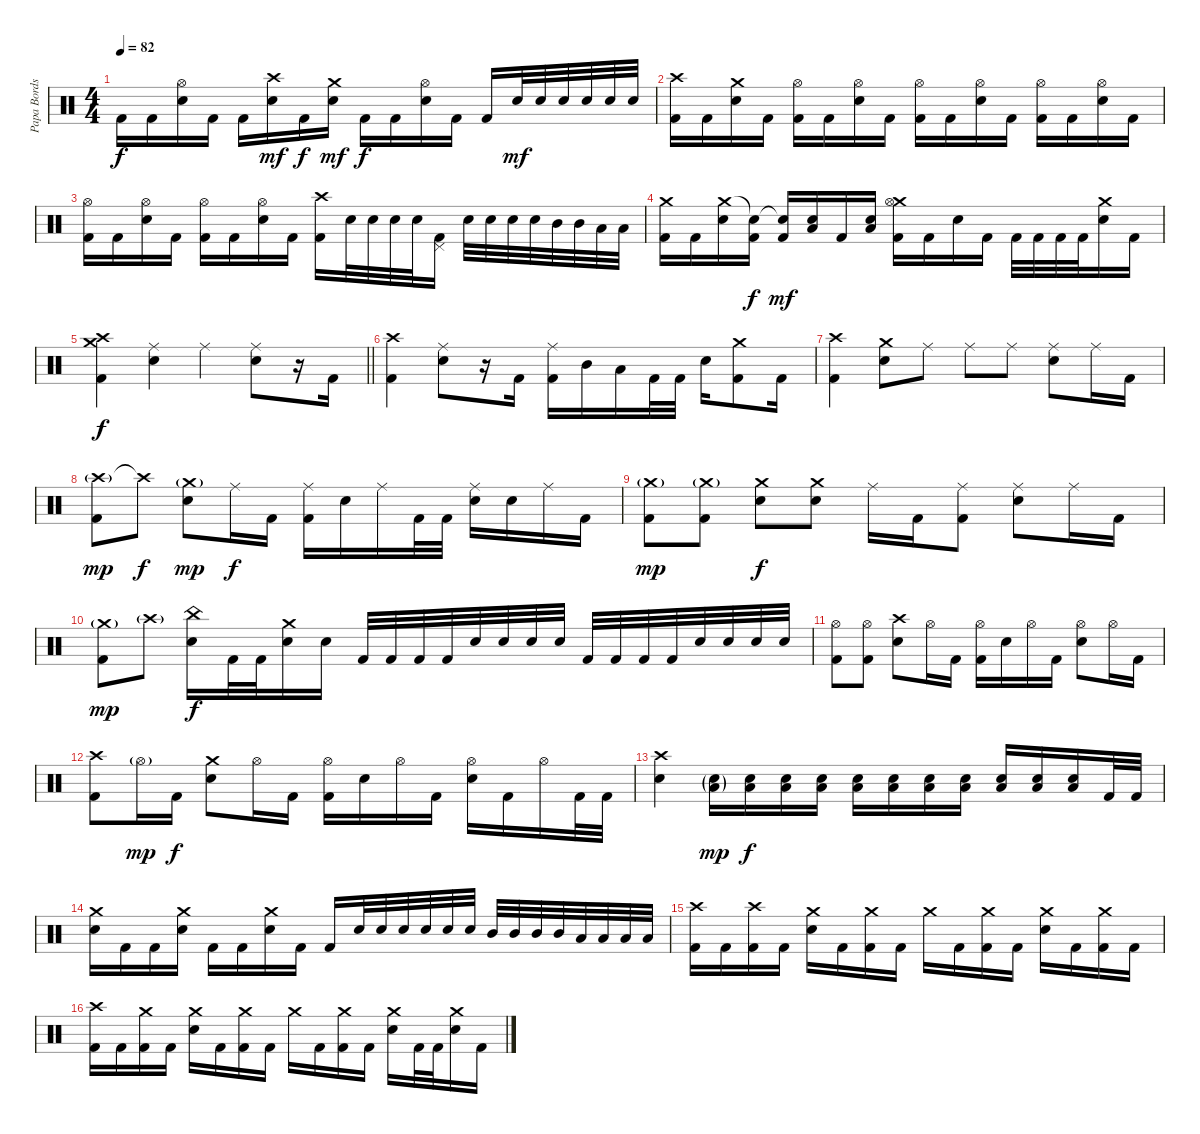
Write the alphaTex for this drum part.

\track ("Papa Bords" "Papa Bords") {instrument percussion}
\staff {score}
\articulation defaults
\ts (4 4)
\tempo 82
\clef neutral
\ks c "Kick (hit) 2".16{dy f} "Kick (hit) 2".16
("Hi-Hat (open)" "Electric Snare (hit)").16 "Kick (hit) 2".16 "Kick (hit) 2".16 ("Crash high (hit)" "Electric Snare (hit)").16{dy mf} "Kick (hit) 2".16{dy f} ("Crash medium (hit)" "Electric Snare (hit)").16{dy mf} "Kick (hit) 2".16{dy f} "Kick (hit) 2".16 ("Hi-Hat (open)" "Electric Snare (hit)").16 "Kick (hit) 2".16 "Kick (hit) 2".16 "Electric Snare (hit)".32{dy mf} "Electric Snare (hit)".32 "Electric Snare (hit)".32 "Electric Snare (hit)".32 "Electric Snare (hit)".32 "Electric Snare (hit)".32 |
("Crash high (hit)" "Kick (hit) 2").16 "Kick (hit) 2".16 ("Crash medium (hit)" "Electric Snare (hit)").16 "Kick (hit) 2".16 ("Hi-Hat (open)" "Kick (hit) 2").16 "Kick (hit) 2".16 ("Hi-Hat (open)" "Electric Snare (hit)").16 "Kick (hit) 2".16 ("Hi-Hat (open)" "Kick (hit) 2").16 "Kick (hit) 2".16 ("Hi-Hat (open)" "Electric Snare (hit)").16 "Kick (hit) 2".16 ("Hi-Hat (open)" "Kick (hit) 2").16 "Kick (hit) 2".16 ("Hi-Hat (open)" "Electric Snare (hit)").16 "Kick (hit) 2".16 |
("Hi-Hat (open)" "Kick (hit) 2").16 "Kick (hit) 2".16 ("Hi-Hat (open)" "Electric Snare (hit)").16 "Kick (hit) 2".16 ("Hi-Hat (open)" "Kick (hit) 2").16 "Kick (hit) 2".16 ("Hi-Hat (open)" "Electric Snare (hit)").16 "Kick (hit) 2".16 ("Crash high (hit)" "Kick (hit) 2").16 "Electric Snare (hit)".32 "Electric Snare (hit)".32 "Electric Snare (hit)".32 "Electric Snare (hit)".32 ("Pedal Hi-Hat (hit)" "Kick (hit) 2").16 "Electric Snare (hit)".32 "Electric Snare (hit)".32 "Electric Snare (hit)".32 "Electric Snare (hit)".32 "Mid Tom (hit)".32 "Mid Tom (hit)".32 "Low Tom (hit)".32 "Low Floor Tom (hit)".32 |
("Crash medium (hit)" "Kick (hit) 2").16 "Kick (hit) 2".16 ("Crash medium (hit)" "Electric Snare (hit)").16 ("Snare (hit)"{t} "Kick (hit) 2").16{dy f} ("Snare (hit)"{t} "Kick (hit) 2").16{dy mf} ("Low Floor Tom (hit)" "Electric Snare (hit)").16 "Kick (hit) 2".16 ("Low Floor Tom (hit)" "Electric Snare (hit)").16 ("Crash medium (hit)" "Hi-Hat (open)" "Kick (hit) 2").16 "Kick (hit) 2".16 "Electric Snare (hit)".16 "Kick (hit) 2".16 "Kick (hit) 2".32 "Kick (hit) 2".32 "Kick (hit) 2".32 "Kick (hit) 2".32 ("Crash medium (hit)" "Electric Snare (hit)").16 "Kick (hit) 2".16 |
\barLineRight lightlight
("Crash high (hit)" "Crash medium (hit)" "Kick (hit) 2").4{dy f} ("Ride (middle)" "Electric Snare (hit)").4 "Ride (middle)".4 ("Ride (middle)" "Electric Snare (hit)").8 r.16 "Kick (hit) 2".16 |
("Crash high (hit)" "Kick (hit) 2").4 ("Ride (middle)" "Electric Snare (hit)").8 r.16 "Kick (hit) 2".16 ("Ride (middle)" "Kick (hit) 2").16 "Mid Tom (hit)".16 "Low Floor Tom (hit)".16 "Kick (hit) 2".32 "Kick (hit) 2".32 "Electric Snare (hit)".16 ("Crash medium (hit)" "Kick (hit) 2").8 "Kick (hit) 2".16 |
("Crash high (hit)" "Kick (hit) 2").4 ("Crash medium (hit)" "Electric Snare (hit)").8 "Ride (middle)".8 "Ride (middle)".8 "Ride (middle)".8 ("Ride (middle)" "Electric Snare (hit)").8 "Ride (middle)".16 "Kick (hit) 2".16 |
("Crash high (hit)"{g} "Kick (hit) 2").8{dy mp} "Crash high (hit)"{t}.8{dy f} ("Crash medium (hit)"{g} "Electric Snare (hit)").8{dy mp} "Ride (middle)".16{dy f} "Kick (hit) 2".16 ("Ride (middle)" "Kick (hit) 2").16 "Electric Snare (hit)".16 "Ride (middle)".16 "Kick (hit) 2".32 "Kick (hit) 2".32 ("Ride (middle)" "Electric Snare (hit)").16 "Electric Snare (hit)".16 "Ride (middle)".16 "Kick (hit) 2".16 |
("Crash medium (hit)"{g} "Kick (hit) 2").8{dy mp} ("Crash medium (hit)"{g} "Kick (hit) 2").8 ("Crash medium (hit)" "Electric Snare (hit)").8{dy f} ("Crash medium (hit)" "Electric Snare (hit)").8 "Ride (middle)".16 "Kick (hit) 2".16 ("Ride (middle)" "Kick (hit) 2").8 ("Ride (middle)" "Electric Snare (hit)").8 "Ride (middle)".16 "Kick (hit) 2".16 |
("Crash medium (hit)"{g} "Kick (hit) 2").8{dy mp} "Crash high (hit)"{g}.8 ("China (hit)" "Electric Snare (hit)").16{dy f} "Kick (hit) 2".32 "Kick (hit) 2".32 ("Crash medium (hit)" "Electric Snare (hit)").16 "Electric Snare (hit)".16 "Kick (hit) 2".32 "Kick (hit) 2".32 "Kick (hit) 2".32 "Kick (hit) 2".32 "Electric Snare (hit)".32 "Electric Snare (hit)".32 "Electric Snare (hit)".32 "Electric Snare (hit)".32 "Kick (hit) 2".32 "Kick (hit) 2".32 "Kick (hit) 2".32 "Kick (hit) 2".32 "Electric Snare (hit)".32 "Electric Snare (hit)".32 "Electric Snare (hit)".32 "Electric Snare (hit)".32 |
("Hi-Hat (open)" "Kick (hit) 2").8 ("Hi-Hat (open)" "Kick (hit) 2").8 ("Crash high (hit)" "Electric Snare (hit)").8 "Hi-Hat (open)".16 "Kick (hit) 2".16 ("Hi-Hat (open)" "Kick (hit) 2").16 "Electric Snare (hit)".16 "Hi-Hat (open)".16 "Kick (hit) 2".16 ("Hi-Hat (open)" "Electric Snare (hit)").8 "Hi-Hat (open)".16 "Kick (hit) 2".16 |
("Crash high (hit)" "Kick (hit) 2").8 "Hi-Hat (open)"{g}.16{dy mp} "Kick (hit) 2".16{dy f} ("Crash medium (hit)" "Electric Snare (hit)").8 "Hi-Hat (open)".16 "Kick (hit) 2".16 ("Hi-Hat (open)" "Kick (hit) 2").16 "Electric Snare (hit)".16 "Hi-Hat (open)".16 "Kick (hit) 2".16 ("Hi-Hat (open)" "Electric Snare (hit)").16 "Kick (hit) 2".16 "Hi-Hat (open)".16 "Kick (hit) 2".32 "Kick (hit) 2".32 |
("Crash high (hit)" "Electric Snare (hit)").4 ("Low Floor Tom (hit)"{g} "Electric Snare (hit)"{g}).16{dy mp} ("Low Floor Tom (hit)" "Electric Snare (hit)").16{dy f} ("Low Floor Tom (hit)" "Electric Snare (hit)").16 ("Low Floor Tom (hit)" "Electric Snare (hit)").16 ("Low Floor Tom (hit)" "Electric Snare (hit)").16 ("Low Floor Tom (hit)" "Electric Snare (hit)").16 ("Low Floor Tom (hit)" "Electric Snare (hit)").16 ("Low Floor Tom (hit)" "Electric Snare (hit)").16 ("Low Floor Tom (hit)" "Electric Snare (hit)").16 ("Low Floor Tom (hit)" "Electric Snare (hit)").16 ("Low Floor Tom (hit)" "Electric Snare (hit)").16 "Kick (hit) 2".32 "Kick (hit) 2".32 |
("Crash medium (hit)" "Electric Snare (hit)").16 "Kick (hit) 2".16 "Kick (hit) 2".16 ("Crash medium (hit)" "Electric Snare (hit)").16 "Kick (hit) 2".16 "Kick (hit) 2".16 ("Crash medium (hit)" "Electric Snare (hit)").16 "Kick (hit) 2".16 "Kick (hit) 2".16 "Electric Snare (hit)".32 "Electric Snare (hit)".32 "Electric Snare (hit)".32 "Electric Snare (hit)".32 "Electric Snare (hit)".32 "Electric Snare (hit)".32 "Mid Tom (hit)".32 "Mid Tom (hit)".32 "Mid Tom (hit)".32 "Mid Tom (hit)".32 "Low Floor Tom (hit)".32 "Low Floor Tom (hit)".32 "Low Floor Tom (hit)".32 "Low Floor Tom (hit)".32 |
("Crash high (hit)" "Kick (hit) 2").16 "Kick (hit) 2".16 ("Crash high (hit)" "Kick (hit) 2").16 "Kick (hit) 2".16 ("Crash medium (hit)" "Electric Snare (hit)").16 "Kick (hit) 2".16 ("Crash medium (hit)" "Kick (hit) 2").16 "Kick (hit) 2".16 "Crash medium (hit)".16 "Kick (hit) 2".16 ("Crash medium (hit)" "Kick (hit) 2").16 "Kick (hit) 2".16 ("Crash medium (hit)" "Electric Snare (hit)").16 "Kick (hit) 2".16 ("Crash medium (hit)" "Kick (hit) 2").16 "Kick (hit) 2".16 |
("Crash high (hit)" "Kick (hit) 2").16 "Kick (hit) 2".16 ("Crash medium (hit)" "Kick (hit) 2").16 "Kick (hit) 2".16 ("Crash medium (hit)" "Electric Snare (hit)").16 "Kick (hit) 2".16 ("Crash medium (hit)" "Kick (hit) 2").16 "Kick (hit) 2".16 "Crash medium (hit)".16 "Kick (hit) 2".16 ("Crash medium (hit)" "Kick (hit) 2").16 "Kick (hit) 2".16 ("Crash medium (hit)" "Electric Snare (hit)").16 "Kick (hit) 2".32 "Kick (hit) 2".32 ("Crash medium (hit)" "Electric Snare (hit)").16 "Kick (hit) 2".16
